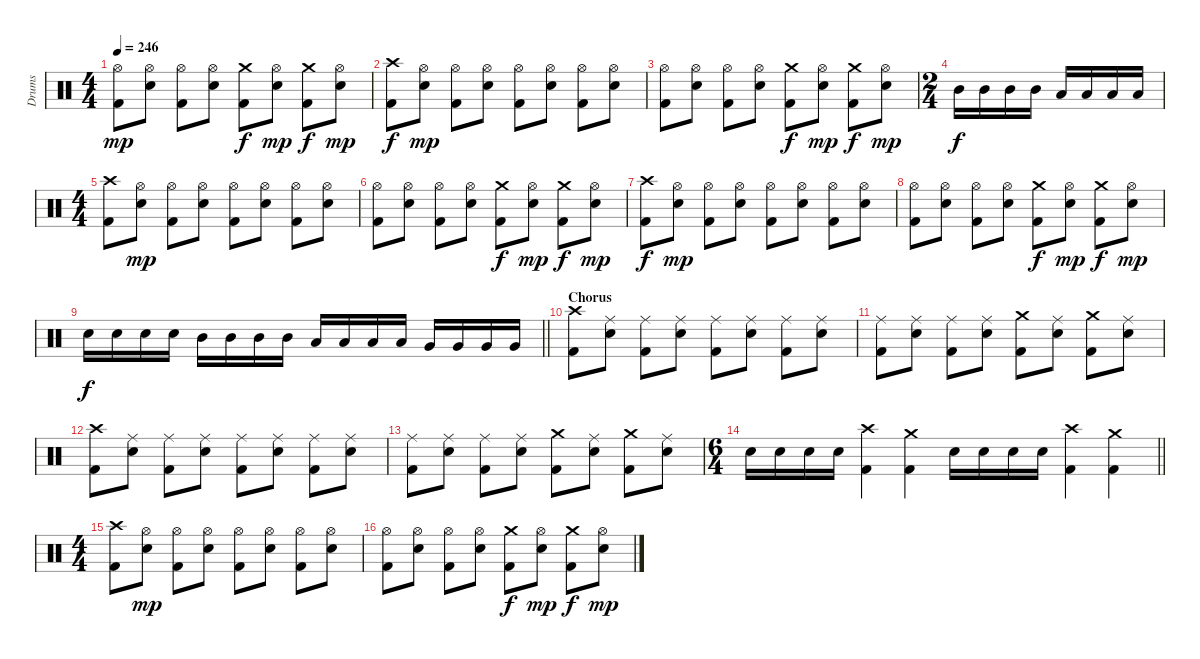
\track ("Drums" "Drums") {instrument percussion}
\staff {score}
\articulation defaults
\ts (4 4)
\tempo 246
\clef neutral
\ks c
("Hi-Hat (open)" "Kick (hit) 2").8{dy mp} ("Hi-Hat (open)" "Snare (hit) 2").8 ("Hi-Hat (open)" "Kick (hit) 2").8 ("Hi-Hat (open)" "Snare (hit) 2").8 ("Crash medium (hit)" "Kick (hit) 2").8{dy f} ("Hi-Hat (open)" "Snare (hit) 2").8{dy mp} ("Crash medium (hit)" "Kick (hit) 2").8{dy f} ("Hi-Hat (open)" "Snare (hit) 2").8{dy mp} |
("Crash high (hit)" "Kick (hit) 2").8{dy f} ("Hi-Hat (open)" "Snare (hit) 2").8{dy mp} ("Hi-Hat (open)" "Kick (hit) 2").8 ("Hi-Hat (open)" "Snare (hit) 2").8 ("Hi-Hat (open)" "Kick (hit) 2").8 ("Hi-Hat (open)" "Snare (hit) 2").8 ("Hi-Hat (open)" "Kick (hit) 2").8 ("Hi-Hat (open)" "Snare (hit) 2").8 |
("Hi-Hat (open)" "Kick (hit) 2").8 ("Hi-Hat (open)" "Snare (hit) 2").8 ("Hi-Hat (open)" "Kick (hit) 2").8 ("Hi-Hat (open)" "Snare (hit) 2").8 ("Crash medium (hit)" "Kick (hit) 2").8{dy f} ("Hi-Hat (open)" "Snare (hit) 2").8{dy mp} ("Crash medium (hit)" "Kick (hit) 2").8{dy f} ("Hi-Hat (open)" "Snare (hit) 2").8{dy mp} |
\ts (2 4)
"Mid Tom (hit)".16{dy f} "Mid Tom (hit)".16 "Mid Tom (hit)".16 "Mid Tom (hit)".16 "Low Tom (hit)".16 "Low Tom (hit)".16 "Low Tom (hit)".16 "Low Tom (hit)".16 |
\ts (4 4)
("Crash high (hit)" "Kick (hit) 2").8 ("Hi-Hat (open)" "Snare (hit) 2").8{dy mp} ("Hi-Hat (open)" "Kick (hit) 2").8 ("Hi-Hat (open)" "Snare (hit) 2").8 ("Hi-Hat (open)" "Kick (hit) 2").8 ("Hi-Hat (open)" "Snare (hit) 2").8 ("Hi-Hat (open)" "Kick (hit) 2").8 ("Hi-Hat (open)" "Snare (hit) 2").8 |
("Hi-Hat (open)" "Kick (hit) 2").8 ("Hi-Hat (open)" "Snare (hit) 2").8 ("Hi-Hat (open)" "Kick (hit) 2").8 ("Hi-Hat (open)" "Snare (hit) 2").8 ("Crash medium (hit)" "Kick (hit) 2").8{dy f} ("Hi-Hat (open)" "Snare (hit) 2").8{dy mp} ("Crash medium (hit)" "Kick (hit) 2").8{dy f} ("Hi-Hat (open)" "Snare (hit) 2").8{dy mp} |
("Crash high (hit)" "Kick (hit) 2").8{dy f} ("Hi-Hat (open)" "Snare (hit) 2").8{dy mp} ("Hi-Hat (open)" "Kick (hit) 2").8 ("Hi-Hat (open)" "Snare (hit) 2").8 ("Hi-Hat (open)" "Kick (hit) 2").8 ("Hi-Hat (open)" "Snare (hit) 2").8 ("Hi-Hat (open)" "Kick (hit) 2").8 ("Hi-Hat (open)" "Snare (hit) 2").8 |
("Hi-Hat (open)" "Kick (hit) 2").8 ("Hi-Hat (open)" "Snare (hit) 2").8 ("Hi-Hat (open)" "Kick (hit) 2").8 ("Hi-Hat (open)" "Snare (hit) 2").8 ("Crash medium (hit)" "Kick (hit) 2").8{dy f} ("Hi-Hat (open)" "Snare (hit) 2").8{dy mp} ("Crash medium (hit)" "Kick (hit) 2").8{dy f} ("Hi-Hat (open)" "Snare (hit) 2").8{dy mp} |
\barLineRight lightlight "Snare (hit) 2".16{dy f} "Snare (hit) 2".16 "Snare (hit) 2".16 "Snare (hit) 2".16 "Mid Tom (hit)".16 "Mid Tom (hit)".16 "Mid Tom (hit)".16 "Mid Tom (hit)".16 "Low Tom (hit)".16 "Low Tom (hit)".16 "Low Tom (hit)".16 "Low Tom (hit)".16 "Very Low Tom (hit)".16 "Very Low Tom (hit)".16 "Very Low Tom (hit)".16 "Very Low Tom (hit)".16
|
\section ("" "Chorus")
("Crash high (hit)" "Kick (hit) 2").8 ("Ride (middle)" "Snare (hit) 2").8 ("Ride (middle)" "Kick (hit) 2").8 ("Ride (middle)" "Snare (hit) 2").8 ("Ride (middle)" "Kick (hit) 2").8 ("Ride (middle)" "Snare (hit) 2").8 ("Ride (middle)" "Kick (hit) 2").8 ("Ride (middle)" "Snare (hit) 2").8 |
("Ride (middle)" "Kick (hit) 2").8 ("Ride (middle)" "Snare (hit) 2").8 ("Ride (middle)" "Kick (hit) 2").8 ("Ride (middle)" "Snare (hit) 2").8 ("Crash medium (hit)" "Kick (hit) 2").8 ("Ride (middle)" "Snare (hit) 2").8 ("Crash medium (hit)" "Kick (hit) 2").8 ("Ride (middle)" "Snare (hit) 2").8 |
("Crash high (hit)" "Kick (hit) 2").8 ("Ride (middle)" "Snare (hit) 2").8 ("Ride (middle)" "Kick (hit) 2").8 ("Ride (middle)" "Snare (hit) 2").8 ("Ride (middle)" "Kick (hit) 2").8 ("Ride (middle)" "Snare (hit) 2").8 ("Ride (middle)" "Kick (hit) 2").8 ("Ride (middle)" "Snare (hit) 2").8 |
("Ride (middle)" "Kick (hit) 2").8 ("Ride (middle)" "Snare (hit) 2").8 ("Ride (middle)" "Kick (hit) 2").8 ("Ride (middle)" "Snare (hit) 2").8 ("Crash medium (hit)" "Kick (hit) 2").8 ("Ride (middle)" "Snare (hit) 2").8 ("Crash medium (hit)" "Kick (hit) 2").8 ("Ride (middle)" "Snare (hit) 2").8 |
\ts (6 4)
\barLineRight lightlight "Snare (hit) 2".16 "Snare (hit) 2".16 "Snare (hit) 2".16 "Snare (hit) 2".16
("Crash high (hit)" "Kick (hit) 2").4 ("Crash medium (hit)" "Kick (hit) 2").4 "Snare (hit) 2".16 "Snare (hit) 2".16 "Snare (hit) 2".16 "Snare (hit) 2".16 ("Crash high (hit)" "Kick (hit) 2").4 ("Crash medium (hit)" "Kick (hit) 2").4 |
\ts (4 4)
\section ("" "")
("Crash high (hit)" "Kick (hit) 2").8 ("Hi-Hat (open)" "Snare (hit) 2").8{dy mp} ("Hi-Hat (open)" "Kick (hit) 2").8 ("Hi-Hat (open)" "Snare (hit) 2").8 ("Hi-Hat (open)" "Kick (hit) 2").8 ("Hi-Hat (open)" "Snare (hit) 2").8 ("Hi-Hat (open)" "Kick (hit) 2").8 ("Hi-Hat (open)" "Snare (hit) 2").8 |
("Hi-Hat (open)" "Kick (hit) 2").8 ("Hi-Hat (open)" "Snare (hit) 2").8 ("Hi-Hat (open)" "Kick (hit) 2").8 ("Hi-Hat (open)" "Snare (hit) 2").8 ("Crash medium (hit)" "Kick (hit) 2").8{dy f} ("Hi-Hat (open)" "Snare (hit) 2").8{dy mp} ("Crash medium (hit)" "Kick (hit) 2").8{dy f} ("Hi-Hat (open)" "Snare (hit) 2").8{dy mp}
